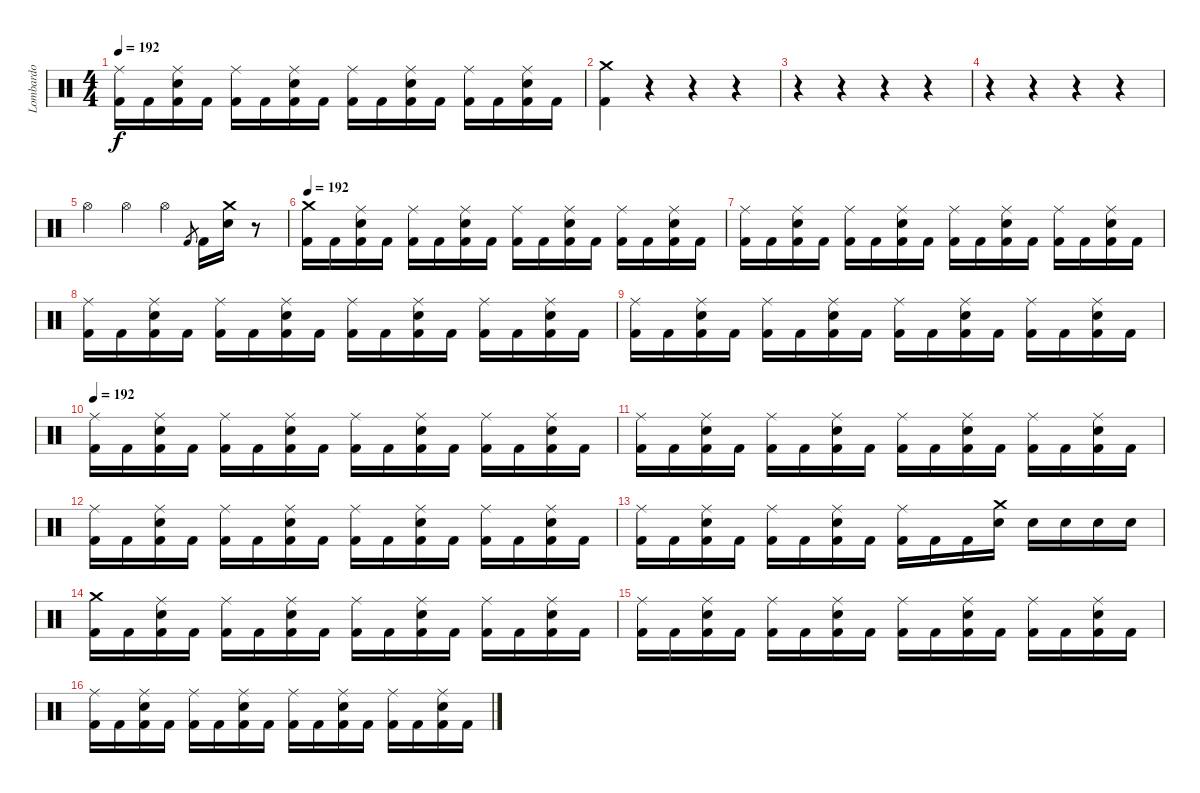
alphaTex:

\track ("Lombardo" "Lombardo") {instrument percussion}
\staff {score}
\articulation defaults
\ts (4 4)
\tempo 192
\clef neutral
\ks c
("Ride (middle)" "Kick (hit) 2").16{dy f} "Kick (hit) 2".16 ("Ride (middle)" "Snare (hit) 2" "Kick (hit) 2").16 "Kick (hit) 2".16 ("Ride (middle)" "Kick (hit) 2").16 "Kick (hit) 2".16 ("Ride (middle)" "Snare (hit) 2" "Kick (hit) 2").16 "Kick (hit) 2".16 ("Ride (middle)" "Kick (hit) 2").16 "Kick (hit) 2".16 ("Ride (middle)" "Snare (hit) 2" "Kick (hit) 2").16 "Kick (hit) 2".16 ("Ride (middle)" "Kick (hit) 2").16 "Kick (hit) 2".16 ("Ride (middle)" "Snare (hit) 2" "Kick (hit) 2").16 "Kick (hit) 2".16 |
("Crash medium (hit)" "Kick (hit) 2").4 r.4 r.4 r.4 |
r.4 r.4 r.4 r.4 |
r.4 r.4 r.4 r.4 |
"Hi-Hat (open)".4 "Hi-Hat (open)".4 "Hi-Hat (open)".4 "Kick (hit) 2".8{gr} "Kick (hit) 2".16 ("Crash medium (hit)" "Snare (hit) 2").16 r.8 |
\tempo 192
("Crash medium (hit)" "Kick (hit) 2").16 "Kick (hit) 2".16 ("Ride (middle)" "Snare (hit) 2" "Kick (hit) 2").16 "Kick (hit) 2".16 ("Ride (middle)" "Kick (hit) 2").16 "Kick (hit) 2".16 ("Ride (middle)" "Snare (hit) 2" "Kick (hit) 2").16 "Kick (hit) 2".16 ("Ride (middle)" "Kick (hit) 2").16 "Kick (hit) 2".16 ("Ride (middle)" "Snare (hit) 2" "Kick (hit) 2").16 "Kick (hit) 2".16 ("Ride (middle)" "Kick (hit) 2").16 "Kick (hit) 2".16 ("Ride (middle)" "Snare (hit) 2" "Kick (hit) 2").16 "Kick (hit) 2".16 |
("Ride (middle)" "Kick (hit) 2").16 "Kick (hit) 2".16 ("Ride (middle)" "Snare (hit) 2" "Kick (hit) 2").16 "Kick (hit) 2".16 ("Ride (middle)" "Kick (hit) 2").16 "Kick (hit) 2".16 ("Ride (middle)" "Snare (hit) 2" "Kick (hit) 2").16 "Kick (hit) 2".16 ("Ride (middle)" "Kick (hit) 2").16 "Kick (hit) 2".16 ("Ride (middle)" "Snare (hit) 2" "Kick (hit) 2").16 "Kick (hit) 2".16 ("Ride (middle)" "Kick (hit) 2").16 "Kick (hit) 2".16 ("Ride (middle)" "Snare (hit) 2" "Kick (hit) 2").16 "Kick (hit) 2".16 |
("Ride (middle)" "Kick (hit) 2").16 "Kick (hit) 2".16 ("Ride (middle)" "Snare (hit) 2" "Kick (hit) 2").16 "Kick (hit) 2".16 ("Ride (middle)" "Kick (hit) 2").16 "Kick (hit) 2".16 ("Ride (middle)" "Snare (hit) 2" "Kick (hit) 2").16 "Kick (hit) 2".16 ("Ride (middle)" "Kick (hit) 2").16 "Kick (hit) 2".16 ("Ride (middle)" "Snare (hit) 2" "Kick (hit) 2").16 "Kick (hit) 2".16 ("Ride (middle)" "Kick (hit) 2").16 "Kick (hit) 2".16 ("Ride (middle)" "Snare (hit) 2" "Kick (hit) 2").16 "Kick (hit) 2".16 |
("Ride (middle)" "Kick (hit) 2").16 "Kick (hit) 2".16 ("Ride (middle)" "Snare (hit) 2" "Kick (hit) 2").16 "Kick (hit) 2".16 ("Ride (middle)" "Kick (hit) 2").16 "Kick (hit) 2".16 ("Ride (middle)" "Snare (hit) 2" "Kick (hit) 2").16 "Kick (hit) 2".16 ("Ride (middle)" "Kick (hit) 2").16 "Kick (hit) 2".16 ("Ride (middle)" "Snare (hit) 2" "Kick (hit) 2").16 "Kick (hit) 2".16 ("Ride (middle)" "Kick (hit) 2").16 "Kick (hit) 2".16 ("Ride (middle)" "Snare (hit) 2" "Kick (hit) 2").16 "Kick (hit) 2".16 |
\tempo 192
("Ride (middle)" "Kick (hit) 2").16 "Kick (hit) 2".16 ("Ride (middle)" "Snare (hit) 2" "Kick (hit) 2").16 "Kick (hit) 2".16 ("Ride (middle)" "Kick (hit) 2").16 "Kick (hit) 2".16 ("Ride (middle)" "Snare (hit) 2" "Kick (hit) 2").16 "Kick (hit) 2".16 ("Ride (middle)" "Kick (hit) 2").16 "Kick (hit) 2".16 ("Ride (middle)" "Snare (hit) 2" "Kick (hit) 2").16 "Kick (hit) 2".16 ("Ride (middle)" "Kick (hit) 2").16 "Kick (hit) 2".16 ("Ride (middle)" "Snare (hit) 2" "Kick (hit) 2").16 "Kick (hit) 2".16 |
("Ride (middle)" "Kick (hit) 2").16 "Kick (hit) 2".16 ("Ride (middle)" "Snare (hit) 2" "Kick (hit) 2").16 "Kick (hit) 2".16 ("Ride (middle)" "Kick (hit) 2").16 "Kick (hit) 2".16 ("Ride (middle)" "Snare (hit) 2" "Kick (hit) 2").16 "Kick (hit) 2".16 ("Ride (middle)" "Kick (hit) 2").16 "Kick (hit) 2".16 ("Ride (middle)" "Snare (hit) 2" "Kick (hit) 2").16 "Kick (hit) 2".16 ("Ride (middle)" "Kick (hit) 2").16 "Kick (hit) 2".16 ("Ride (middle)" "Snare (hit) 2" "Kick (hit) 2").16 "Kick (hit) 2".16 |
("Ride (middle)" "Kick (hit) 2").16 "Kick (hit) 2".16 ("Ride (middle)" "Snare (hit) 2" "Kick (hit) 2").16 "Kick (hit) 2".16 ("Ride (middle)" "Kick (hit) 2").16 "Kick (hit) 2".16 ("Ride (middle)" "Snare (hit) 2" "Kick (hit) 2").16 "Kick (hit) 2".16 ("Ride (middle)" "Kick (hit) 2").16 "Kick (hit) 2".16 ("Ride (middle)" "Snare (hit) 2" "Kick (hit) 2").16 "Kick (hit) 2".16 ("Ride (middle)" "Kick (hit) 2").16 "Kick (hit) 2".16 ("Ride (middle)" "Snare (hit) 2" "Kick (hit) 2").16 "Kick (hit) 2".16 |
("Ride (middle)" "Kick (hit) 2").16 "Kick (hit) 2".16 ("Ride (middle)" "Snare (hit) 2" "Kick (hit) 2").16 "Kick (hit) 2".16 ("Ride (middle)" "Kick (hit) 2").16 "Kick (hit) 2".16 ("Ride (middle)" "Snare (hit) 2" "Kick (hit) 2").16 "Kick (hit) 2".16 ("Ride (middle)" "Kick (hit) 2").16 "Kick (hit) 2".16 "Kick (hit) 2".16 ("Crash medium (hit)" "Snare (hit) 2").16 "Snare (hit) 2".16 "Snare (hit) 2".16 "Snare (hit) 2".16 "Snare (hit) 2".16 |
("Crash medium (hit)" "Kick (hit) 2").16 "Kick (hit) 2".16 ("Ride (middle)" "Snare (hit) 2" "Kick (hit) 2").16 "Kick (hit) 2".16 ("Ride (middle)" "Kick (hit) 2").16 "Kick (hit) 2".16 ("Ride (middle)" "Snare (hit) 2" "Kick (hit) 2").16 "Kick (hit) 2".16 ("Ride (middle)" "Kick (hit) 2").16 "Kick (hit) 2".16 ("Ride (middle)" "Snare (hit) 2" "Kick (hit) 2").16 "Kick (hit) 2".16 ("Ride (middle)" "Kick (hit) 2").16 "Kick (hit) 2".16 ("Ride (middle)" "Snare (hit) 2" "Kick (hit) 2").16 "Kick (hit) 2".16 |
("Ride (middle)" "Kick (hit) 2").16 "Kick (hit) 2".16 ("Ride (middle)" "Snare (hit) 2" "Kick (hit) 2").16 "Kick (hit) 2".16 ("Ride (middle)" "Kick (hit) 2").16 "Kick (hit) 2".16 ("Ride (middle)" "Snare (hit) 2" "Kick (hit) 2").16 "Kick (hit) 2".16 ("Ride (middle)" "Kick (hit) 2").16 "Kick (hit) 2".16 ("Ride (middle)" "Snare (hit) 2" "Kick (hit) 2").16 "Kick (hit) 2".16 ("Ride (middle)" "Kick (hit) 2").16 "Kick (hit) 2".16 ("Ride (middle)" "Snare (hit) 2" "Kick (hit) 2").16 "Kick (hit) 2".16 |
("Ride (middle)" "Kick (hit) 2").16 "Kick (hit) 2".16 ("Ride (middle)" "Snare (hit) 2" "Kick (hit) 2").16 "Kick (hit) 2".16 ("Ride (middle)" "Kick (hit) 2").16 "Kick (hit) 2".16 ("Ride (middle)" "Snare (hit) 2" "Kick (hit) 2").16 "Kick (hit) 2".16 ("Ride (middle)" "Kick (hit) 2").16 "Kick (hit) 2".16 ("Ride (middle)" "Snare (hit) 2" "Kick (hit) 2").16 "Kick (hit) 2".16 ("Ride (middle)" "Kick (hit) 2").16 "Kick (hit) 2".16 ("Ride (middle)" "Snare (hit) 2" "Kick (hit) 2").16 "Kick (hit) 2".16
